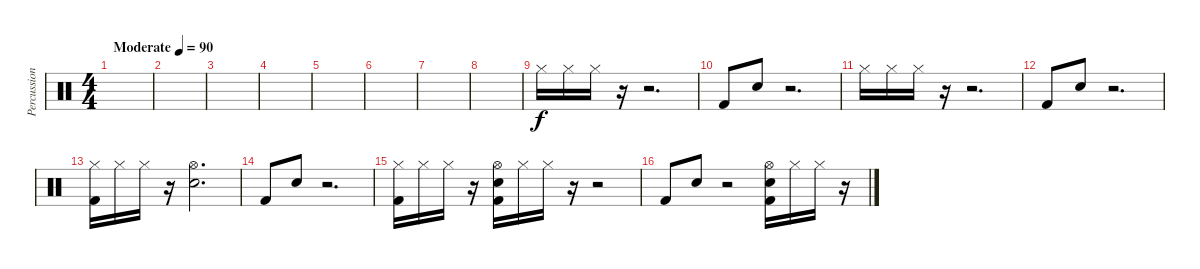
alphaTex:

\track ("Percussion" "Percussion") {instrument percussion}
\staff {score}
\articulation defaults
\ts (4 4)
\tempo (90 "Moderate")
\clef neutral
\ks c
|
|
|
|
|
|
|
|
"Hi-Hat (closed)".16 "Hi-Hat (closed)".16 "Hi-Hat (closed)".16 r.16 r.2{d} |
"Kick (hit) 2".8 "Electric Snare (hit)".8 r.2{d} |
"Hi-Hat (closed)".16 "Hi-Hat (closed)".16 "Hi-Hat (closed)".16 r.16 r.2{d} |
"Kick (hit) 2".8 "Electric Snare (hit)".8 r.2{d} |
("Hi-Hat (closed)" "Kick (hit) 2").16 "Hi-Hat (closed)".16 "Hi-Hat (closed)".16 r.16 ("Hi-Hat (open)" "Electric Snare (hit)").2{d} |
"Kick (hit) 2".8 "Electric Snare (hit)".8 r.2{d} |
("Hi-Hat (closed)" "Kick (hit) 2").16 "Hi-Hat (closed)".16 "Hi-Hat (closed)".16 r.16 ("Kick (hit) 2" "Hi-Hat (open)" "Electric Snare (hit)").16 "Hi-Hat (closed)".16 "Hi-Hat (closed)".16 r.16 r.2 |
"Kick (hit) 2".8 "Electric Snare (hit)".8 r.2 ("Kick (hit) 2" "Hi-Hat (open)" "Electric Snare (hit)").16 "Hi-Hat (closed)".16 "Hi-Hat (closed)".16 r.16
